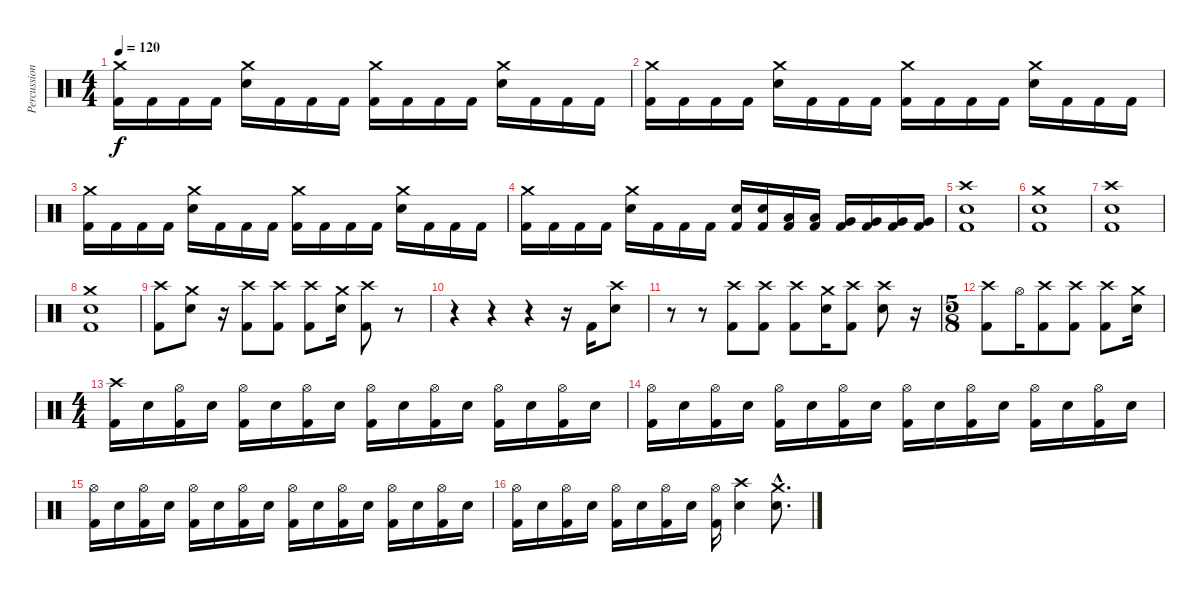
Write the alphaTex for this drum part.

\track ("Percussion" "Percussion") {instrument percussion}
\staff {score}
\articulation defaults
\ts (4 4)
\tempo 120
\clef neutral
\ks c
("Crash medium (hit)" "Kick (hit) 2").16{dy f} "Kick (hit) 2".16 "Kick (hit) 2".16 "Kick (hit) 2".16 ("Crash medium (hit)" "Electric Snare (hit)").16 "Kick (hit) 2".16 "Kick (hit) 2".16 "Kick (hit) 2".16 ("Crash medium (hit)" "Kick (hit) 2").16 "Kick (hit) 2".16 "Kick (hit) 2".16 "Kick (hit) 2".16 ("Crash medium (hit)" "Electric Snare (hit)").16 "Kick (hit) 2".16 "Kick (hit) 2".16 "Kick (hit) 2".16 |
("Crash medium (hit)" "Kick (hit) 2").16 "Kick (hit) 2".16 "Kick (hit) 2".16 "Kick (hit) 2".16 ("Crash medium (hit)" "Electric Snare (hit)").16 "Kick (hit) 2".16 "Kick (hit) 2".16 "Kick (hit) 2".16 ("Crash medium (hit)" "Kick (hit) 2").16 "Kick (hit) 2".16 "Kick (hit) 2".16 "Kick (hit) 2".16 ("Crash medium (hit)" "Electric Snare (hit)").16 "Kick (hit) 2".16 "Kick (hit) 2".16 "Kick (hit) 2".16 |
("Crash medium (hit)" "Kick (hit) 2").16 "Kick (hit) 2".16 "Kick (hit) 2".16 "Kick (hit) 2".16 ("Crash medium (hit)" "Electric Snare (hit)").16 "Kick (hit) 2".16 "Kick (hit) 2".16 "Kick (hit) 2".16 ("Crash medium (hit)" "Kick (hit) 2").16 "Kick (hit) 2".16 "Kick (hit) 2".16 "Kick (hit) 2".16 ("Crash medium (hit)" "Electric Snare (hit)").16 "Kick (hit) 2".16 "Kick (hit) 2".16 "Kick (hit) 2".16 |
("Crash medium (hit)" "Kick (hit) 2").16 "Kick (hit) 2".16 "Kick (hit) 2".16 "Kick (hit) 2".16 ("Crash medium (hit)" "Electric Snare (hit)").16 "Kick (hit) 2".16 "Kick (hit) 2".16 "Kick (hit) 2".16 ("Electric Snare (hit)" "Kick (hit) 2").16 ("Electric Snare (hit)" "Kick (hit) 2").16 ("Low Tom (hit)" "Kick (hit) 2").16 ("Low Tom (hit)" "Kick (hit) 2").16 ("Very Low Tom (hit)" "Kick (hit) 2").16 ("Very Low Tom (hit)" "Kick (hit) 2").16 ("Very Low Tom (hit)" "Kick (hit) 2").16 ("Very Low Tom (hit)" "Kick (hit) 2").16 |
("Crash high (hit)" "Electric Snare (hit)" "Kick (hit) 2").1 |
("Crash medium (hit)" "Electric Snare (hit)" "Kick (hit) 2").1 |
("Crash high (hit)" "Electric Snare (hit)" "Kick (hit) 2").1 |
("Crash medium (hit)" "Electric Snare (hit)" "Kick (hit) 2").1 |
("Crash high (hit)" "Kick (hit) 2").8 ("Crash medium (hit)" "Electric Snare (hit)").8 r.16 ("Crash high (hit)" "Kick (hit) 2").8 ("Crash high (hit)" "Kick (hit) 2").8 ("Crash high (hit)" "Kick (hit) 2").8 ("Crash medium (hit)" "Electric Snare (hit)").16 ("Crash high (hit)" "Kick (hit) 2").8 r.8 |
r.4 r.4 r.4 r.16 "Kick (hit) 2".16 ("Crash high (hit)" "Electric Snare (hit)").8 |
r.8 r.8 ("Crash high (hit)" "Kick (hit) 2").8 ("Crash high (hit)" "Kick (hit) 2").8 ("Crash high (hit)" "Kick (hit) 2").8 ("Crash medium (hit)" "Electric Snare (hit)").16 ("Crash high (hit)" "Kick (hit) 2").8 ("Crash high (hit)" "Electric Snare (hit)").8 r.16 |
\ts (5 8)
("Crash high (hit)" "Kick (hit) 2").8 "Hi-Hat (open)".16 ("Crash high (hit)" "Kick (hit) 2").8 ("Crash high (hit)" "Kick (hit) 2").8 ("Crash high (hit)" "Kick (hit) 2").8 ("Crash medium (hit)" "Electric Snare (hit)").16 |
\ts (4 4)
("Crash high (hit)" "Kick (hit) 2").16 "Electric Snare (hit)".16 ("Hi-Hat (open)" "Kick (hit) 2").16 "Electric Snare (hit)".16 ("Hi-Hat (open)" "Kick (hit) 2").16 "Electric Snare (hit)".16 ("Hi-Hat (open)" "Kick (hit) 2").16 "Electric Snare (hit)".16 ("Hi-Hat (open)" "Kick (hit) 2").16 "Electric Snare (hit)".16 ("Hi-Hat (open)" "Kick (hit) 2").16 "Electric Snare (hit)".16 ("Hi-Hat (open)" "Kick (hit) 2").16 "Electric Snare (hit)".16 ("Hi-Hat (open)" "Kick (hit) 2").16 "Electric Snare (hit)".16 |
("Hi-Hat (open)" "Kick (hit) 2").16 "Electric Snare (hit)".16 ("Hi-Hat (open)" "Kick (hit) 2").16 "Electric Snare (hit)".16 ("Hi-Hat (open)" "Kick (hit) 2").16 "Electric Snare (hit)".16 ("Hi-Hat (open)" "Kick (hit) 2").16 "Electric Snare (hit)".16 ("Hi-Hat (open)" "Kick (hit) 2").16 "Electric Snare (hit)".16 ("Hi-Hat (open)" "Kick (hit) 2").16 "Electric Snare (hit)".16 ("Hi-Hat (open)" "Kick (hit) 2").16 "Electric Snare (hit)".16 ("Hi-Hat (open)" "Kick (hit) 2").16 "Electric Snare (hit)".16 |
("Hi-Hat (open)" "Kick (hit) 2").16 "Electric Snare (hit)".16 ("Hi-Hat (open)" "Kick (hit) 2").16 "Electric Snare (hit)".16 ("Hi-Hat (open)" "Kick (hit) 2").16 "Electric Snare (hit)".16 ("Hi-Hat (open)" "Kick (hit) 2").16 "Electric Snare (hit)".16 ("Hi-Hat (open)" "Kick (hit) 2").16 "Electric Snare (hit)".16 ("Hi-Hat (open)" "Kick (hit) 2").16 "Electric Snare (hit)".16 ("Hi-Hat (open)" "Kick (hit) 2").16 "Electric Snare (hit)".16 ("Hi-Hat (open)" "Kick (hit) 2").16 "Electric Snare (hit)".16 |
("Hi-Hat (open)" "Kick (hit) 2").16 "Electric Snare (hit)".16 ("Hi-Hat (open)" "Kick (hit) 2").16 "Electric Snare (hit)".16 ("Hi-Hat (open)" "Kick (hit) 2").16 "Electric Snare (hit)".16 ("Hi-Hat (open)" "Kick (hit) 2").16 "Electric Snare (hit)".16 ("Hi-Hat (open)" "Kick (hit) 2").16 ("Crash high (hit)" "Electric Snare (hit)").4 ("Crash medium (hit)"{hac} "Electric Snare (hit)"{hac}).8{d}
